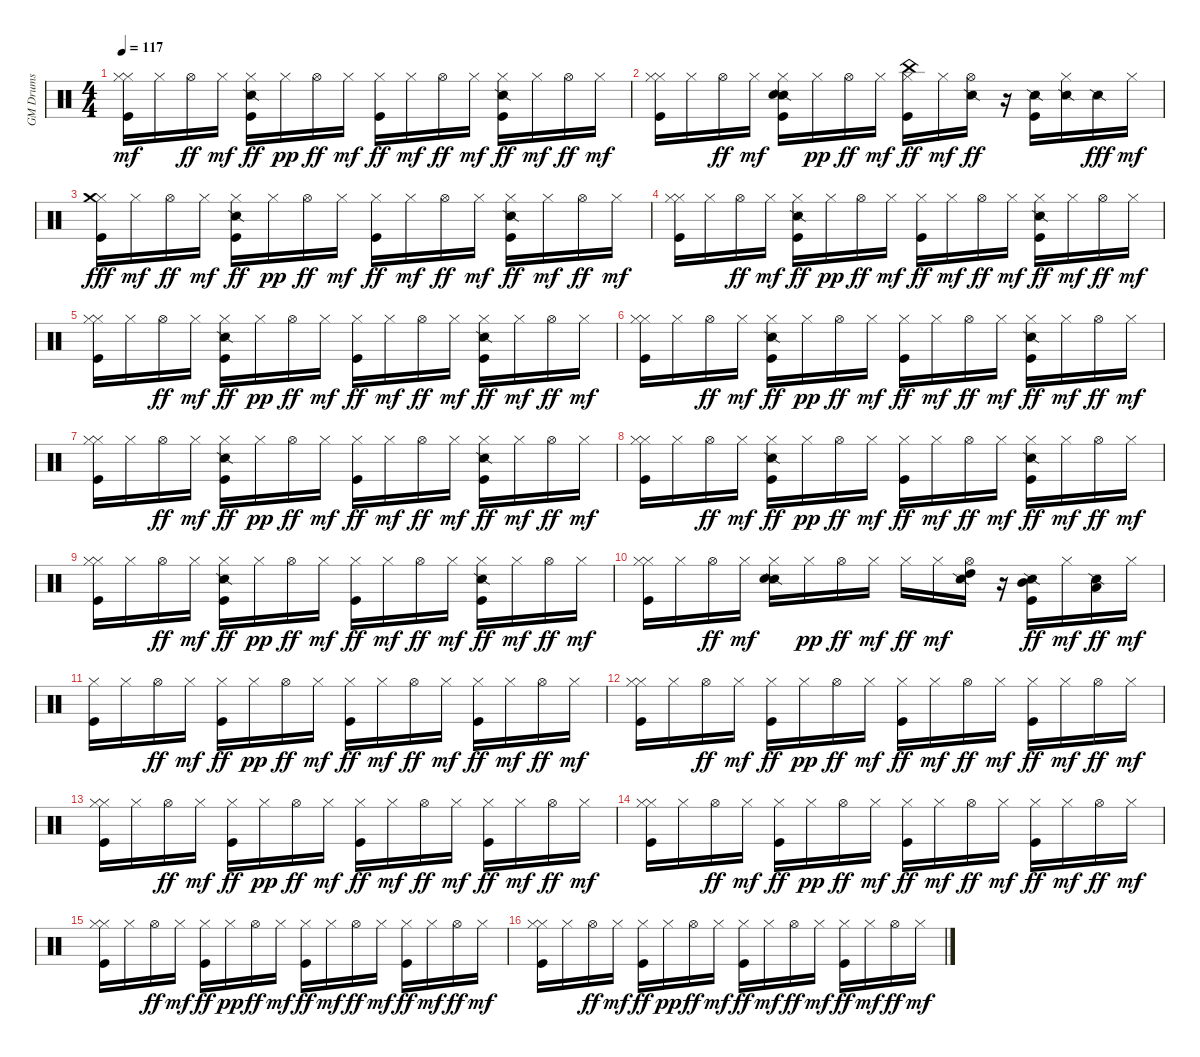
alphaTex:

\track ("GM Drums" "GM Drums") {instrument percussion}
\staff {score}
\articulation defaults
\ts (4 4)
\tempo 117
\clef neutral
\ks c
("Hi-Hat (closed)" "Kick (hit)" "Hi-Hat (closed)").16{dy mf} "Hi-Hat (closed)".16 "Hi-Hat (open)".16{dy ff} "Hi-Hat (closed)".16{dy mf} ("Kick (hit)" "Hi-Hat (closed)" "Snare (side stick) 2").16{dy ff} "Hi-Hat (closed)".16{dy pp} "Hi-Hat (open)".16{dy ff} "Hi-Hat (closed)".16{dy mf} ("Kick (hit)" "Hi-Hat (closed)").16{dy ff} "Hi-Hat (closed)".16{dy mf} "Hi-Hat (open)".16{dy ff} "Hi-Hat (closed)".16{dy mf} ("Kick (hit)" "Hi-Hat (closed)" "Snare (side stick) 2").16{dy ff} "Hi-Hat (closed)".16{dy mf} "Hi-Hat (open)".16{dy ff} "Hi-Hat (closed)".16{dy mf} |
("Hi-Hat (closed)" "Kick (hit)" "Hi-Hat (closed)").16 "Hi-Hat (closed)".16 "Hi-Hat (open)".16{dy ff} "Hi-Hat (closed)".16{dy mf} ("Hi-Hat (closed)" "Snare (side stick) 2" "Kick (hit)" "Electric Snare (hit)").16 "Hi-Hat (closed)".16{dy pp} "Hi-Hat (open)".16{dy ff} "Hi-Hat (closed)".16{dy mf} ("Hi-Hat (closed)" "Kick (hit)" "China (hit)").16{dy ff} "Hi-Hat (closed)".16{dy mf} ("Snare (side stick) 2" "Hi-Hat (open)").16{dy ff} r.16 ("Kick (hit)" "Snare (side stick) 2").16 ("Hi-Hat (closed)" "Snare (side stick) 2").16 "Snare (side stick) 2".16{dy fff} "Hi-Hat (closed)".16{dy mf} |
("Kick (hit)" "Hi-Hat (closed)" "Crash medium (hit)").16{dy fff} "Hi-Hat (closed)".16{dy mf} "Hi-Hat (open)".16{dy ff} "Hi-Hat (closed)".16{dy mf} ("Kick (hit)" "Hi-Hat (closed)" "Snare (side stick) 2").16{dy ff} "Hi-Hat (closed)".16{dy pp} "Hi-Hat (open)".16{dy ff} "Hi-Hat (closed)".16{dy mf} ("Kick (hit)" "Hi-Hat (closed)").16{dy ff} "Hi-Hat (closed)".16{dy mf} "Hi-Hat (open)".16{dy ff} "Hi-Hat (closed)".16{dy mf} ("Kick (hit)" "Hi-Hat (closed)" "Snare (side stick) 2").16{dy ff} "Hi-Hat (closed)".16{dy mf} "Hi-Hat (open)".16{dy ff} "Hi-Hat (closed)".16{dy mf} |
("Hi-Hat (closed)" "Kick (hit)" "Hi-Hat (closed)").16 "Hi-Hat (closed)".16 "Hi-Hat (open)".16{dy ff} "Hi-Hat (closed)".16{dy mf} ("Kick (hit)" "Hi-Hat (closed)" "Snare (side stick) 2").16{dy ff} "Hi-Hat (closed)".16{dy pp} "Hi-Hat (open)".16{dy ff} "Hi-Hat (closed)".16{dy mf} ("Kick (hit)" "Hi-Hat (closed)").16{dy ff} "Hi-Hat (closed)".16{dy mf} "Hi-Hat (open)".16{dy ff} "Hi-Hat (closed)".16{dy mf} ("Kick (hit)" "Hi-Hat (closed)" "Snare (side stick) 2").16{dy ff} "Hi-Hat (closed)".16{dy mf} "Hi-Hat (open)".16{dy ff} "Hi-Hat (closed)".16{dy mf} |
("Hi-Hat (closed)" "Kick (hit)" "Hi-Hat (closed)").16 "Hi-Hat (closed)".16 "Hi-Hat (open)".16{dy ff} "Hi-Hat (closed)".16{dy mf} ("Kick (hit)" "Hi-Hat (closed)" "Snare (side stick) 2").16{dy ff} "Hi-Hat (closed)".16{dy pp} "Hi-Hat (open)".16{dy ff} "Hi-Hat (closed)".16{dy mf} ("Kick (hit)" "Hi-Hat (closed)").16{dy ff} "Hi-Hat (closed)".16{dy mf} "Hi-Hat (open)".16{dy ff} "Hi-Hat (closed)".16{dy mf} ("Kick (hit)" "Hi-Hat (closed)" "Snare (side stick) 2").16{dy ff} "Hi-Hat (closed)".16{dy mf} "Hi-Hat (open)".16{dy ff} "Hi-Hat (closed)".16{dy mf} |
("Hi-Hat (closed)" "Kick (hit)" "Hi-Hat (closed)").16 "Hi-Hat (closed)".16 "Hi-Hat (open)".16{dy ff} "Hi-Hat (closed)".16{dy mf} ("Kick (hit)" "Hi-Hat (closed)" "Snare (side stick) 2").16{dy ff} "Hi-Hat (closed)".16{dy pp} "Hi-Hat (open)".16{dy ff} "Hi-Hat (closed)".16{dy mf} ("Kick (hit)" "Hi-Hat (closed)").16{dy ff} "Hi-Hat (closed)".16{dy mf} "Hi-Hat (open)".16{dy ff} "Hi-Hat (closed)".16{dy mf} ("Kick (hit)" "Hi-Hat (closed)" "Snare (side stick) 2").16{dy ff} "Hi-Hat (closed)".16{dy mf} "Hi-Hat (open)".16{dy ff} "Hi-Hat (closed)".16{dy mf} |
("Hi-Hat (closed)" "Kick (hit)" "Hi-Hat (closed)").16 "Hi-Hat (closed)".16 "Hi-Hat (open)".16{dy ff} "Hi-Hat (closed)".16{dy mf} ("Kick (hit)" "Hi-Hat (closed)" "Snare (side stick) 2").16{dy ff} "Hi-Hat (closed)".16{dy pp} "Hi-Hat (open)".16{dy ff} "Hi-Hat (closed)".16{dy mf} ("Kick (hit)" "Hi-Hat (closed)").16{dy ff} "Hi-Hat (closed)".16{dy mf} "Hi-Hat (open)".16{dy ff} "Hi-Hat (closed)".16{dy mf} ("Kick (hit)" "Hi-Hat (closed)" "Snare (side stick) 2").16{dy ff} "Hi-Hat (closed)".16{dy mf} "Hi-Hat (open)".16{dy ff} "Hi-Hat (closed)".16{dy mf} |
("Hi-Hat (closed)" "Kick (hit)" "Hi-Hat (closed)").16 "Hi-Hat (closed)".16 "Hi-Hat (open)".16{dy ff} "Hi-Hat (closed)".16{dy mf} ("Kick (hit)" "Hi-Hat (closed)" "Snare (side stick) 2").16{dy ff} "Hi-Hat (closed)".16{dy pp} "Hi-Hat (open)".16{dy ff} "Hi-Hat (closed)".16{dy mf} ("Kick (hit)" "Hi-Hat (closed)").16{dy ff} "Hi-Hat (closed)".16{dy mf} "Hi-Hat (open)".16{dy ff} "Hi-Hat (closed)".16{dy mf} ("Kick (hit)" "Hi-Hat (closed)" "Snare (side stick) 2").16{dy ff} "Hi-Hat (closed)".16{dy mf} "Hi-Hat (open)".16{dy ff} "Hi-Hat (closed)".16{dy mf} |
("Hi-Hat (closed)" "Kick (hit)" "Hi-Hat (closed)").16 "Hi-Hat (closed)".16 "Hi-Hat (open)".16{dy ff} "Hi-Hat (closed)".16{dy mf} ("Kick (hit)" "Hi-Hat (closed)" "Snare (side stick) 2").16{dy ff} "Hi-Hat (closed)".16{dy pp} "Hi-Hat (open)".16{dy ff} "Hi-Hat (closed)".16{dy mf} ("Kick (hit)" "Hi-Hat (closed)").16{dy ff} "Hi-Hat (closed)".16{dy mf} "Hi-Hat (open)".16{dy ff} "Hi-Hat (closed)".16{dy mf} ("Kick (hit)" "Hi-Hat (closed)" "Snare (side stick) 2").16{dy ff} "Hi-Hat (closed)".16{dy mf} "Hi-Hat (open)".16{dy ff} "Hi-Hat (closed)".16{dy mf} |
("Hi-Hat (closed)" "Kick (hit)" "Hi-Hat (closed)").16 "Hi-Hat (closed)".16 "Hi-Hat (open)".16{dy ff} "Hi-Hat (closed)".16{dy mf} ("Hi-Hat (closed)" "Snare (side stick) 2" "Electric Snare (hit)").16 "Hi-Hat (closed)".16{dy pp} "Hi-Hat (open)".16{dy ff} "Hi-Hat (closed)".16{dy mf} "Hi-Hat (closed)".16{dy ff} "Hi-Hat (closed)".16{dy mf} ("Snare (side stick) 2" "Hi-Hat (open)" "High Tom (hit)").16 r.16 ("Kick (hit)" "Snare (side stick) 2" "Mid Tom (hit)").16{dy ff} "Hi-Hat (closed)".16{dy mf} ("Snare (side stick) 2" "Low Tom (hit)").16{dy ff} "Hi-Hat (closed)".16{dy mf} |
("Kick (hit)" "Hi-Hat (closed)").16 "Hi-Hat (closed)".16 "Hi-Hat (open)".16{dy ff} "Hi-Hat (closed)".16{dy mf} ("Kick (hit)" "Hi-Hat (closed)").16{dy ff} "Hi-Hat (closed)".16{dy pp} "Hi-Hat (open)".16{dy ff} "Hi-Hat (closed)".16{dy mf} ("Kick (hit)" "Hi-Hat (closed)").16{dy ff} "Hi-Hat (closed)".16{dy mf} "Hi-Hat (open)".16{dy ff} "Hi-Hat (closed)".16{dy mf} ("Kick (hit)" "Hi-Hat (closed)").16{dy ff} "Hi-Hat (closed)".16{dy mf} "Hi-Hat (open)".16{dy ff} "Hi-Hat (closed)".16{dy mf} |
("Hi-Hat (closed)" "Kick (hit)" "Hi-Hat (closed)").16 "Hi-Hat (closed)".16 "Hi-Hat (open)".16{dy ff} "Hi-Hat (closed)".16{dy mf} ("Kick (hit)" "Hi-Hat (closed)").16{dy ff} "Hi-Hat (closed)".16{dy pp} "Hi-Hat (open)".16{dy ff} "Hi-Hat (closed)".16{dy mf} ("Kick (hit)" "Hi-Hat (closed)").16{dy ff} "Hi-Hat (closed)".16{dy mf} "Hi-Hat (open)".16{dy ff} "Hi-Hat (closed)".16{dy mf} ("Kick (hit)" "Hi-Hat (closed)").16{dy ff} "Hi-Hat (closed)".16{dy mf} "Hi-Hat (open)".16{dy ff} "Hi-Hat (closed)".16{dy mf} |
("Hi-Hat (closed)" "Kick (hit)" "Hi-Hat (closed)").16 "Hi-Hat (closed)".16 "Hi-Hat (open)".16{dy ff} "Hi-Hat (closed)".16{dy mf} ("Kick (hit)" "Hi-Hat (closed)").16{dy ff} "Hi-Hat (closed)".16{dy pp} "Hi-Hat (open)".16{dy ff} "Hi-Hat (closed)".16{dy mf} ("Kick (hit)" "Hi-Hat (closed)").16{dy ff} "Hi-Hat (closed)".16{dy mf} "Hi-Hat (open)".16{dy ff} "Hi-Hat (closed)".16{dy mf} ("Kick (hit)" "Hi-Hat (closed)").16{dy ff} "Hi-Hat (closed)".16{dy mf} "Hi-Hat (open)".16{dy ff} "Hi-Hat (closed)".16{dy mf} |
("Hi-Hat (closed)" "Kick (hit)" "Hi-Hat (closed)").16 "Hi-Hat (closed)".16 "Hi-Hat (open)".16{dy ff} "Hi-Hat (closed)".16{dy mf} ("Kick (hit)" "Hi-Hat (closed)").16{dy ff} "Hi-Hat (closed)".16{dy pp} "Hi-Hat (open)".16{dy ff} "Hi-Hat (closed)".16{dy mf} ("Kick (hit)" "Hi-Hat (closed)").16{dy ff} "Hi-Hat (closed)".16{dy mf} "Hi-Hat (open)".16{dy ff} "Hi-Hat (closed)".16{dy mf} ("Kick (hit)" "Hi-Hat (closed)").16{dy ff} "Hi-Hat (closed)".16{dy mf} "Hi-Hat (open)".16{dy ff} "Hi-Hat (closed)".16{dy mf} |
("Hi-Hat (closed)" "Kick (hit)" "Hi-Hat (closed)").16 "Hi-Hat (closed)".16 "Hi-Hat (open)".16{dy ff} "Hi-Hat (closed)".16{dy mf} ("Kick (hit)" "Hi-Hat (closed)").16{dy ff} "Hi-Hat (closed)".16{dy pp} "Hi-Hat (open)".16{dy ff} "Hi-Hat (closed)".16{dy mf} ("Kick (hit)" "Hi-Hat (closed)").16{dy ff} "Hi-Hat (closed)".16{dy mf} "Hi-Hat (open)".16{dy ff} "Hi-Hat (closed)".16{dy mf} ("Kick (hit)" "Hi-Hat (closed)").16{dy ff} "Hi-Hat (closed)".16{dy mf} "Hi-Hat (open)".16{dy ff} "Hi-Hat (closed)".16{dy mf} |
("Hi-Hat (closed)" "Kick (hit)" "Hi-Hat (closed)").16 "Hi-Hat (closed)".16 "Hi-Hat (open)".16{dy ff} "Hi-Hat (closed)".16{dy mf} ("Kick (hit)" "Hi-Hat (closed)").16{dy ff} "Hi-Hat (closed)".16{dy pp} "Hi-Hat (open)".16{dy ff} "Hi-Hat (closed)".16{dy mf} ("Kick (hit)" "Hi-Hat (closed)").16{dy ff} "Hi-Hat (closed)".16{dy mf} "Hi-Hat (open)".16{dy ff} "Hi-Hat (closed)".16{dy mf} ("Kick (hit)" "Hi-Hat (closed)").16{dy ff} "Hi-Hat (closed)".16{dy mf} "Hi-Hat (open)".16{dy ff} "Hi-Hat (closed)".16{dy mf}
